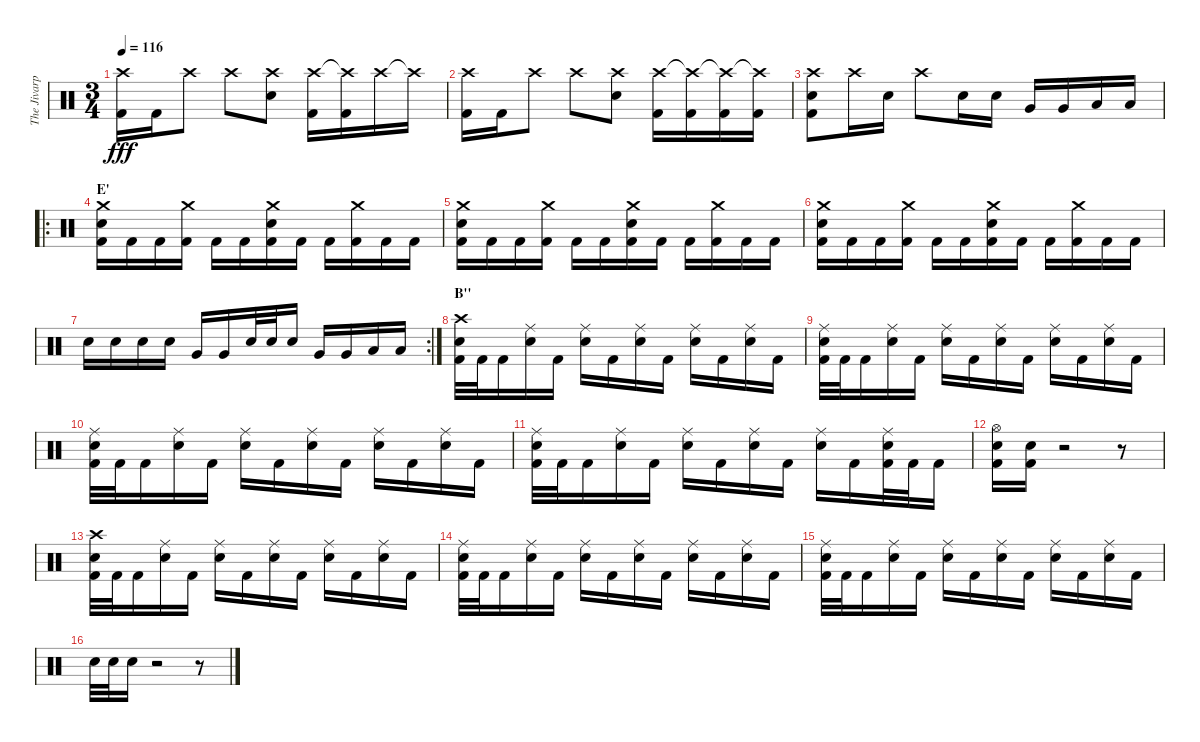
\track ("The Jivarp" "The Jivarp") {instrument percussion}
\staff {score}
\articulation defaults
\ts (3 4)
\tempo 116
\clef neutral
\ks c
("Crash high (hit)" "Kick (hit) 2").16{dy fff} "Kick (hit) 2".16 "Crash high (hit)".8 "Crash high (hit)".8 ("Crash high (hit)" "Electric Snare (hit)").8 ("Crash high (hit)" "Kick (hit) 2").16 ("Crash high (hit)"{t} "Kick (hit) 2").16 "Crash high (hit)".16 "Crash high (hit)"{t}.16 |
("Crash high (hit)" "Kick (hit) 2").16 "Kick (hit) 2".16 "Crash high (hit)".8 "Crash high (hit)".8 ("Crash high (hit)" "Electric Snare (hit)").8 ("Crash high (hit)" "Kick (hit) 2").16 ("Crash high (hit)"{t} "Kick (hit) 2").16 ("Crash high (hit)"{t} "Kick (hit) 2").16 ("Crash high (hit)"{t} "Kick (hit) 2").16 |
("Crash high (hit)" "Electric Snare (hit)" "Kick (hit) 2").8 "Crash high (hit)".16 "Electric Snare (hit)".16 "Crash high (hit)".8 "Electric Snare (hit)".16 "Electric Snare (hit)".16 "Very Low Tom (hit)".16 "Very Low Tom (hit)".16 "Low Tom (hit)".16 "Low Tom (hit)".16 |
\ro
\section ("" "E'")
("Crash medium (hit)" "Electric Snare (hit)" "Kick (hit) 2").16 "Kick (hit) 2".16 "Kick (hit) 2".16 ("Crash medium (hit)" "Kick (hit) 2").16 "Kick (hit) 2".16 "Kick (hit) 2".16 ("Crash medium (hit)" "Electric Snare (hit)" "Kick (hit) 2").16 "Kick (hit) 2".16 "Kick (hit) 2".16 ("Crash medium (hit)" "Kick (hit) 2").16 "Kick (hit) 2".16 "Kick (hit) 2".16 |
("Crash medium (hit)" "Electric Snare (hit)" "Kick (hit) 2").16 "Kick (hit) 2".16 "Kick (hit) 2".16 ("Crash medium (hit)" "Kick (hit) 2").16 "Kick (hit) 2".16 "Kick (hit) 2".16 ("Crash medium (hit)" "Electric Snare (hit)" "Kick (hit) 2").16 "Kick (hit) 2".16 "Kick (hit) 2".16 ("Crash medium (hit)" "Kick (hit) 2").16 "Kick (hit) 2".16 "Kick (hit) 2".16 |
("Crash medium (hit)" "Electric Snare (hit)" "Kick (hit) 2").16 "Kick (hit) 2".16 "Kick (hit) 2".16 ("Crash medium (hit)" "Kick (hit) 2").16 "Kick (hit) 2".16 "Kick (hit) 2".16 ("Crash medium (hit)" "Electric Snare (hit)" "Kick (hit) 2").16 "Kick (hit) 2".16 "Kick (hit) 2".16 ("Crash medium (hit)" "Kick (hit) 2").16 "Kick (hit) 2".16 "Kick (hit) 2".16 |
\rc 2 "Electric Snare (hit)".16 "Electric Snare (hit)".16 "Electric Snare (hit)".16 "Electric Snare (hit)".16 "Very Low Tom (hit)".16 "Very Low Tom (hit)".16 "Electric Snare (hit)".32 "Electric Snare (hit)".32 "Electric Snare (hit)".16 "Very Low Tom (hit)".16 "Very Low Tom (hit)".16 "Low Tom (hit)".16 "Low Tom (hit)".16
|
\section ("" "B''")
("Crash high (hit)" "Electric Snare (hit)" "Kick (hit) 2").32 "Kick (hit) 2".32 "Kick (hit) 2".16 ("Ride (middle)" "Electric Snare (hit)").16 "Kick (hit) 2".16 ("Ride (middle)" "Electric Snare (hit)").16 "Kick (hit) 2".16 ("Ride (middle)" "Electric Snare (hit)").16 "Kick (hit) 2".16 ("Ride (middle)" "Electric Snare (hit)").16 "Kick (hit) 2".16 ("Ride (middle)" "Electric Snare (hit)").16 "Kick (hit) 2".16 |
("Ride (middle)" "Electric Snare (hit)" "Kick (hit) 2").32 "Kick (hit) 2".32 "Kick (hit) 2".16 ("Ride (middle)" "Electric Snare (hit)").16 "Kick (hit) 2".16 ("Ride (middle)" "Electric Snare (hit)").16 "Kick (hit) 2".16 ("Ride (middle)" "Electric Snare (hit)").16 "Kick (hit) 2".16 ("Ride (middle)" "Electric Snare (hit)").16 "Kick (hit) 2".16 ("Ride (middle)" "Electric Snare (hit)").16 "Kick (hit) 2".16 |
("Ride (middle)" "Electric Snare (hit)" "Kick (hit) 2").32 "Kick (hit) 2".32 "Kick (hit) 2".16 ("Ride (middle)" "Electric Snare (hit)").16 "Kick (hit) 2".16 ("Ride (middle)" "Electric Snare (hit)").16 "Kick (hit) 2".16 ("Ride (middle)" "Electric Snare (hit)").16 "Kick (hit) 2".16 ("Ride (middle)" "Electric Snare (hit)").16 "Kick (hit) 2".16 ("Ride (middle)" "Electric Snare (hit)").16 "Kick (hit) 2".16 |
("Ride (middle)" "Electric Snare (hit)" "Kick (hit) 2").32 "Kick (hit) 2".32 "Kick (hit) 2".16 ("Ride (middle)" "Electric Snare (hit)").16 "Kick (hit) 2".16 ("Ride (middle)" "Electric Snare (hit)").16 "Kick (hit) 2".16 ("Ride (middle)" "Electric Snare (hit)").16 "Kick (hit) 2".16 ("Ride (middle)" "Electric Snare (hit)").16 "Kick (hit) 2".16 ("Ride (middle)" "Electric Snare (hit)" "Kick (hit) 2").32 "Kick (hit) 2".32 "Kick (hit) 2".16 |
("Hi-Hat (open)" "Electric Snare (hit)" "Kick (hit) 2").16 ("Electric Snare (hit)" "Kick (hit) 2").16 r.2 r.8 |
("Crash high (hit)" "Electric Snare (hit)" "Kick (hit) 2").32 "Kick (hit) 2".32 "Kick (hit) 2".16 ("Ride (middle)" "Electric Snare (hit)").16 "Kick (hit) 2".16 ("Ride (middle)" "Electric Snare (hit)").16 "Kick (hit) 2".16 ("Ride (middle)" "Electric Snare (hit)").16 "Kick (hit) 2".16 ("Ride (middle)" "Electric Snare (hit)").16 "Kick (hit) 2".16 ("Ride (middle)" "Electric Snare (hit)").16 "Kick (hit) 2".16 |
("Ride (middle)" "Electric Snare (hit)" "Kick (hit) 2").32 "Kick (hit) 2".32 "Kick (hit) 2".16 ("Ride (middle)" "Electric Snare (hit)").16 "Kick (hit) 2".16 ("Ride (middle)" "Electric Snare (hit)").16 "Kick (hit) 2".16 ("Ride (middle)" "Electric Snare (hit)").16 "Kick (hit) 2".16 ("Ride (middle)" "Electric Snare (hit)").16 "Kick (hit) 2".16 ("Ride (middle)" "Electric Snare (hit)").16 "Kick (hit) 2".16 |
("Ride (middle)" "Electric Snare (hit)" "Kick (hit) 2").32 "Kick (hit) 2".32 "Kick (hit) 2".16 ("Ride (middle)" "Electric Snare (hit)").16 "Kick (hit) 2".16 ("Ride (middle)" "Electric Snare (hit)").16 "Kick (hit) 2".16 ("Ride (middle)" "Electric Snare (hit)").16 "Kick (hit) 2".16 ("Ride (middle)" "Electric Snare (hit)").16 "Kick (hit) 2".16 ("Ride (middle)" "Electric Snare (hit)").16 "Kick (hit) 2".16 |
"Electric Snare (hit)".32 "Electric Snare (hit)".32 "Electric Snare (hit)".16 r.2 r.8
